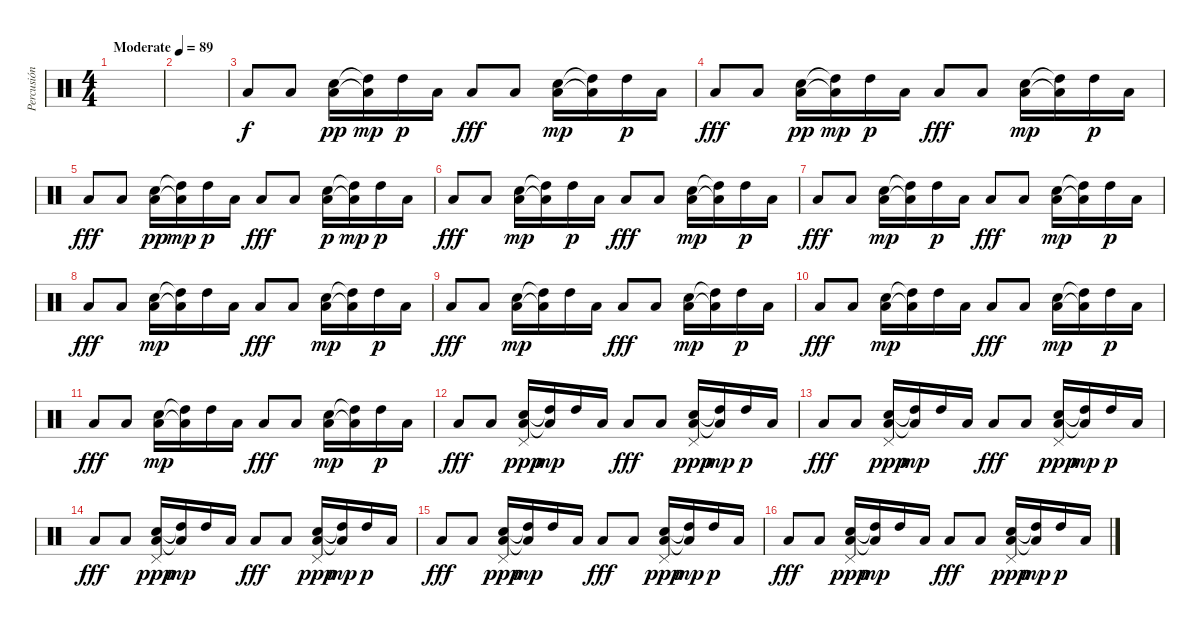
\track ("Percusión" "Percusión") {instrument percussion}
\staff {score}
\articulation defaults
\ts (4 4)
\tempo (89 "Moderate")
\clef neutral
\ks c
|
|
"Low Floor Tom (hit)".8{volume 0} "Low Floor Tom (hit)".8{volume 13} ("Electric Snare (hit)" "Low Floor Tom (hit)").16{dy pp} ("High Tom (hit)"{t} "Low Floor Tom (hit)"{t}).16{dy mp} "High Tom (hit)".16{dy p} "Low Tom (hit)".16 "Low Floor Tom (hit)".8{dy fff} "Low Floor Tom (hit)".8 ("Electric Snare (hit)" "Low Floor Tom (hit)").16{dy mp} ("High Tom (hit)"{t} "Low Floor Tom (hit)"{t}).16 "High Tom (hit)".16{dy p} "Low Tom (hit)".16 |
"Low Floor Tom (hit)".8{dy fff} "Low Floor Tom (hit)".8 ("Electric Snare (hit)" "Low Floor Tom (hit)").16{dy pp} ("High Tom (hit)"{t} "Low Floor Tom (hit)"{t}).16{dy mp} "High Tom (hit)".16{dy p} "Low Tom (hit)".16 "Low Floor Tom (hit)".8{dy fff} "Low Floor Tom (hit)".8 ("Electric Snare (hit)" "Low Floor Tom (hit)").16{dy mp} ("High Tom (hit)"{t} "Low Floor Tom (hit)"{t}).16 "High Tom (hit)".16{dy p} "Low Tom (hit)".16 |
"Low Floor Tom (hit)".8{dy fff} "Low Floor Tom (hit)".8 ("Electric Snare (hit)" "Low Floor Tom (hit)").16{dy pp} ("High Tom (hit)"{t} "Low Floor Tom (hit)"{t}).16{dy mp} "High Tom (hit)".16{dy p} "Low Tom (hit)".16 "Low Floor Tom (hit)".8{dy fff} "Low Floor Tom (hit)".8 ("Electric Snare (hit)" "Low Floor Tom (hit)").16{dy p} ("High Tom (hit)"{t} "Low Floor Tom (hit)"{t}).16{dy mp} "High Tom (hit)".16{dy p} "Low Tom (hit)".16 |
"Low Floor Tom (hit)".8{dy fff} "Low Floor Tom (hit)".8 ("Electric Snare (hit)" "Low Floor Tom (hit)").16{dy mp} ("High Tom (hit)"{t} "Low Floor Tom (hit)"{t}).16 "High Tom (hit)".16{dy p} "Low Tom (hit)".16 "Low Floor Tom (hit)".8{dy fff} "Low Floor Tom (hit)".8 ("Electric Snare (hit)" "Low Floor Tom (hit)").16{dy mp} ("High Tom (hit)"{t} "Low Floor Tom (hit)"{t}).16 "High Tom (hit)".16{dy p} "Low Tom (hit)".16 |
"Low Floor Tom (hit)".8{dy fff} "Low Floor Tom (hit)".8 ("Electric Snare (hit)" "Low Floor Tom (hit)").16{dy mp} ("High Tom (hit)"{t} "Low Floor Tom (hit)"{t}).16 "High Tom (hit)".16{dy p} "Low Tom (hit)".16 "Low Floor Tom (hit)".8{dy fff} "Low Floor Tom (hit)".8 ("Electric Snare (hit)" "Low Floor Tom (hit)").16{dy mp} ("High Tom (hit)"{t} "Low Floor Tom (hit)"{t}).16 "High Tom (hit)".16{dy p} "Low Tom (hit)".16 |
"Low Floor Tom (hit)".8{dy fff} "Low Floor Tom (hit)".8 ("Electric Snare (hit)" "Low Floor Tom (hit)").16{dy mp} ("High Tom (hit)"{t} "Low Floor Tom (hit)"{t}).16 "High Tom (hit)".16 "Low Tom (hit)".16 "Low Floor Tom (hit)".8{dy fff} "Low Floor Tom (hit)".8 ("Electric Snare (hit)" "Low Floor Tom (hit)").16{dy mp} ("High Tom (hit)"{t} "Low Floor Tom (hit)"{t}).16 "High Tom (hit)".16{dy p} "Low Tom (hit)".16 |
"Low Floor Tom (hit)".8{dy fff} "Low Floor Tom (hit)".8 ("Electric Snare (hit)" "Low Floor Tom (hit)").16{dy mp} ("High Tom (hit)"{t} "Low Floor Tom (hit)"{t}).16 "High Tom (hit)".16 "Low Tom (hit)".16 "Low Floor Tom (hit)".8{dy fff} "Low Floor Tom (hit)".8 ("Electric Snare (hit)" "Low Floor Tom (hit)").16{dy mp} ("High Tom (hit)"{t} "Low Floor Tom (hit)"{t}).16 "High Tom (hit)".16{dy p} "Low Tom (hit)".16 |
"Low Floor Tom (hit)".8{dy fff} "Low Floor Tom (hit)".8 ("Electric Snare (hit)" "Low Floor Tom (hit)").16{dy mp} ("High Tom (hit)"{t} "Low Floor Tom (hit)"{t}).16 "High Tom (hit)".16 "Low Tom (hit)".16 "Low Floor Tom (hit)".8{dy fff} "Low Floor Tom (hit)".8 ("Electric Snare (hit)" "Low Floor Tom (hit)").16{dy mp} ("High Tom (hit)"{t} "Low Floor Tom (hit)"{t}).16 "High Tom (hit)".16{dy p} "Low Tom (hit)".16 |
"Low Floor Tom (hit)".8{dy fff} "Low Floor Tom (hit)".8 ("Electric Snare (hit)" "Low Floor Tom (hit)").16{dy mp} ("High Tom (hit)"{t} "Low Floor Tom (hit)"{t}).16 "High Tom (hit)".16 "Low Tom (hit)".16 "Low Floor Tom (hit)".8{dy fff} "Low Floor Tom (hit)".8 ("Electric Snare (hit)" "Low Floor Tom (hit)").16{dy mp} ("High Tom (hit)"{t} "Low Floor Tom (hit)"{t}).16 "High Tom (hit)".16{dy p} "Low Tom (hit)".16 |
"Low Floor Tom (hit)".8{dy fff} "Low Floor Tom (hit)".8 ("Electric Snare (hit)" "Low Floor Tom (hit)" "Pedal Hi-Hat (hit)").16{dy ppp} ("High Tom (hit)"{t} "Low Floor Tom (hit)"{t}).16{dy mp} "High Tom (hit)".16 "Low Tom (hit)".16 "Low Floor Tom (hit)".8{dy fff} "Low Floor Tom (hit)".8 ("Electric Snare (hit)" "Low Floor Tom (hit)" "Pedal Hi-Hat (hit)").16{dy ppp} ("High Tom (hit)"{t} "Low Floor Tom (hit)"{t}).16{dy mp} "High Tom (hit)".16{dy p} "Low Tom (hit)".16 |
"Low Floor Tom (hit)".8{dy fff} "Low Floor Tom (hit)".8 ("Electric Snare (hit)" "Low Floor Tom (hit)" "Pedal Hi-Hat (hit)").16{dy ppp} ("High Tom (hit)"{t} "Low Floor Tom (hit)"{t}).16{dy mp} "High Tom (hit)".16 "Low Tom (hit)".16 "Low Floor Tom (hit)".8{dy fff} "Low Floor Tom (hit)".8 ("Electric Snare (hit)" "Low Floor Tom (hit)" "Pedal Hi-Hat (hit)").16{dy ppp} ("High Tom (hit)"{t} "Low Floor Tom (hit)"{t}).16{dy mp} "High Tom (hit)".16{dy p} "Low Tom (hit)".16 |
"Low Floor Tom (hit)".8{dy fff} "Low Floor Tom (hit)".8 ("Electric Snare (hit)" "Low Floor Tom (hit)" "Pedal Hi-Hat (hit)").16{dy ppp} ("High Tom (hit)"{t} "Low Floor Tom (hit)"{t}).16{dy mp} "High Tom (hit)".16 "Low Tom (hit)".16 "Low Floor Tom (hit)".8{dy fff} "Low Floor Tom (hit)".8 ("Electric Snare (hit)" "Low Floor Tom (hit)" "Pedal Hi-Hat (hit)").16{dy ppp} ("High Tom (hit)"{t} "Low Floor Tom (hit)"{t}).16{dy mp} "High Tom (hit)".16{dy p} "Low Tom (hit)".16 |
"Low Floor Tom (hit)".8{dy fff} "Low Floor Tom (hit)".8 ("Electric Snare (hit)" "Low Floor Tom (hit)" "Pedal Hi-Hat (hit)").16{dy ppp} ("High Tom (hit)"{t} "Low Floor Tom (hit)"{t}).16{dy mp} "High Tom (hit)".16 "Low Tom (hit)".16 "Low Floor Tom (hit)".8{dy fff} "Low Floor Tom (hit)".8 ("Electric Snare (hit)" "Low Floor Tom (hit)" "Pedal Hi-Hat (hit)").16{dy ppp} ("High Tom (hit)"{t} "Low Floor Tom (hit)"{t}).16{dy mp} "High Tom (hit)".16{dy p} "Low Tom (hit)".16 |
"Low Floor Tom (hit)".8{dy fff} "Low Floor Tom (hit)".8 ("Electric Snare (hit)" "Low Floor Tom (hit)" "Pedal Hi-Hat (hit)").16{dy ppp} ("High Tom (hit)"{t} "Low Floor Tom (hit)"{t}).16{dy mp} "High Tom (hit)".16 "Low Tom (hit)".16 "Low Floor Tom (hit)".8{dy fff} "Low Floor Tom (hit)".8 ("Electric Snare (hit)" "Low Floor Tom (hit)" "Pedal Hi-Hat (hit)").16{dy ppp} ("High Tom (hit)"{t} "Low Floor Tom (hit)"{t}).16{dy mp} "High Tom (hit)".16{dy p} "Low Tom (hit)".16
